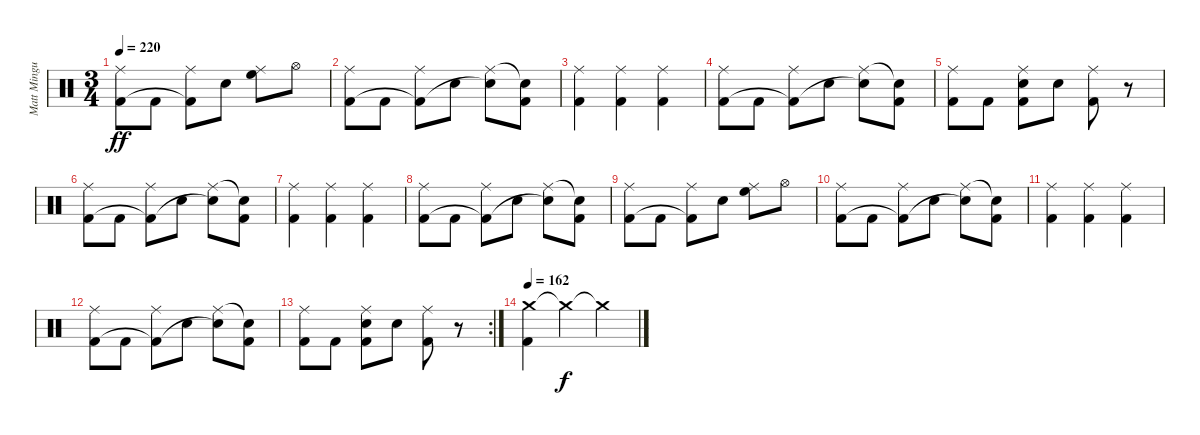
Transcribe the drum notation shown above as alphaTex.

\track ("Matt Mingus" "Matt Mingu") {instrument percussion}
\staff {score}
\articulation defaults
\ts (3 4)
\tempo 220
\clef neutral
\ks c
("Ride (middle)" "Kick (hit) 2").8{dy ff} "Kick (hit) 2".8 ("Ride (middle)" "Kick (hit) 2"{t}).8 "Electric Snare (hit)".8 ("Ride (middle)" "High Floor Tom (hit)").8 "Hi-Hat (open)".8 |
("Ride (middle)" "Kick (hit) 2").8 "Kick (hit) 2".8 ("Ride (middle)" "Kick (hit) 2"{t}).8 "Electric Snare (hit)".8 ("Ride (middle)" "Electric Snare (hit)"{t}).8 ("Electric Snare (hit)"{t} "Kick (hit) 2").8 |
("Ride (middle)" "Kick (hit) 2").4 ("Ride (middle)" "Kick (hit) 2").4 ("Ride (middle)" "Kick (hit) 2").4 |
("Ride (middle)" "Kick (hit) 2").8 "Kick (hit) 2".8 ("Ride (middle)" "Kick (hit) 2"{t}).8 "Electric Snare (hit)".8 ("Ride (middle)" "Electric Snare (hit)"{t}).8 ("Electric Snare (hit)"{t} "Kick (hit) 2").8 |
("Ride (middle)" "Kick (hit) 2").8 "Kick (hit) 2".8 ("Ride (middle)" "Electric Snare (hit)" "Kick (hit) 2").8 "Electric Snare (hit)".8 ("Ride (middle)" "Kick (hit) 2").8 r.8 |
("Ride (middle)" "Kick (hit) 2").8 "Kick (hit) 2".8 ("Ride (middle)" "Kick (hit) 2"{t}).8 "Electric Snare (hit)".8 ("Ride (middle)" "Electric Snare (hit)"{t}).8 ("Electric Snare (hit)"{t} "Kick (hit) 2").8 |
("Ride (middle)" "Kick (hit) 2").4 ("Ride (middle)" "Kick (hit) 2").4 ("Ride (middle)" "Kick (hit) 2").4 |
("Ride (middle)" "Kick (hit) 2").8 "Kick (hit) 2".8 ("Ride (middle)" "Kick (hit) 2"{t}).8 "Electric Snare (hit)".8 ("Ride (middle)" "Electric Snare (hit)"{t}).8 ("Electric Snare (hit)"{t} "Kick (hit) 2").8 |
("Ride (middle)" "Kick (hit) 2").8 "Kick (hit) 2".8 ("Ride (middle)" "Kick (hit) 2"{t}).8 "Electric Snare (hit)".8 ("Ride (middle)" "High Floor Tom (hit)").8 "Hi-Hat (open)".8 |
("Ride (middle)" "Kick (hit) 2").8 "Kick (hit) 2".8 ("Ride (middle)" "Kick (hit) 2"{t}).8 "Electric Snare (hit)".8 ("Ride (middle)" "Electric Snare (hit)"{t}).8 ("Electric Snare (hit)"{t} "Kick (hit) 2").8 |
("Ride (middle)" "Kick (hit) 2").4 ("Ride (middle)" "Kick (hit) 2").4 ("Ride (middle)" "Kick (hit) 2").4 |
("Ride (middle)" "Kick (hit) 2").8 "Kick (hit) 2".8 ("Ride (middle)" "Kick (hit) 2"{t}).8 "Electric Snare (hit)".8 ("Ride (middle)" "Electric Snare (hit)"{t}).8 ("Electric Snare (hit)"{t} "Kick (hit) 2").8 |
\rc 2
("Ride (middle)" "Kick (hit) 2").8 "Kick (hit) 2".8 ("Ride (middle)" "Electric Snare (hit)" "Kick (hit) 2").8 "Electric Snare (hit)".8 ("Ride (middle)" "Kick (hit) 2").8 r.8 |
\tempo 162
("Crash medium (hit)" "Kick (hit) 2").4 "Crash medium (hit)"{t}.4{dy f} "Crash medium (hit)"{t}.4
